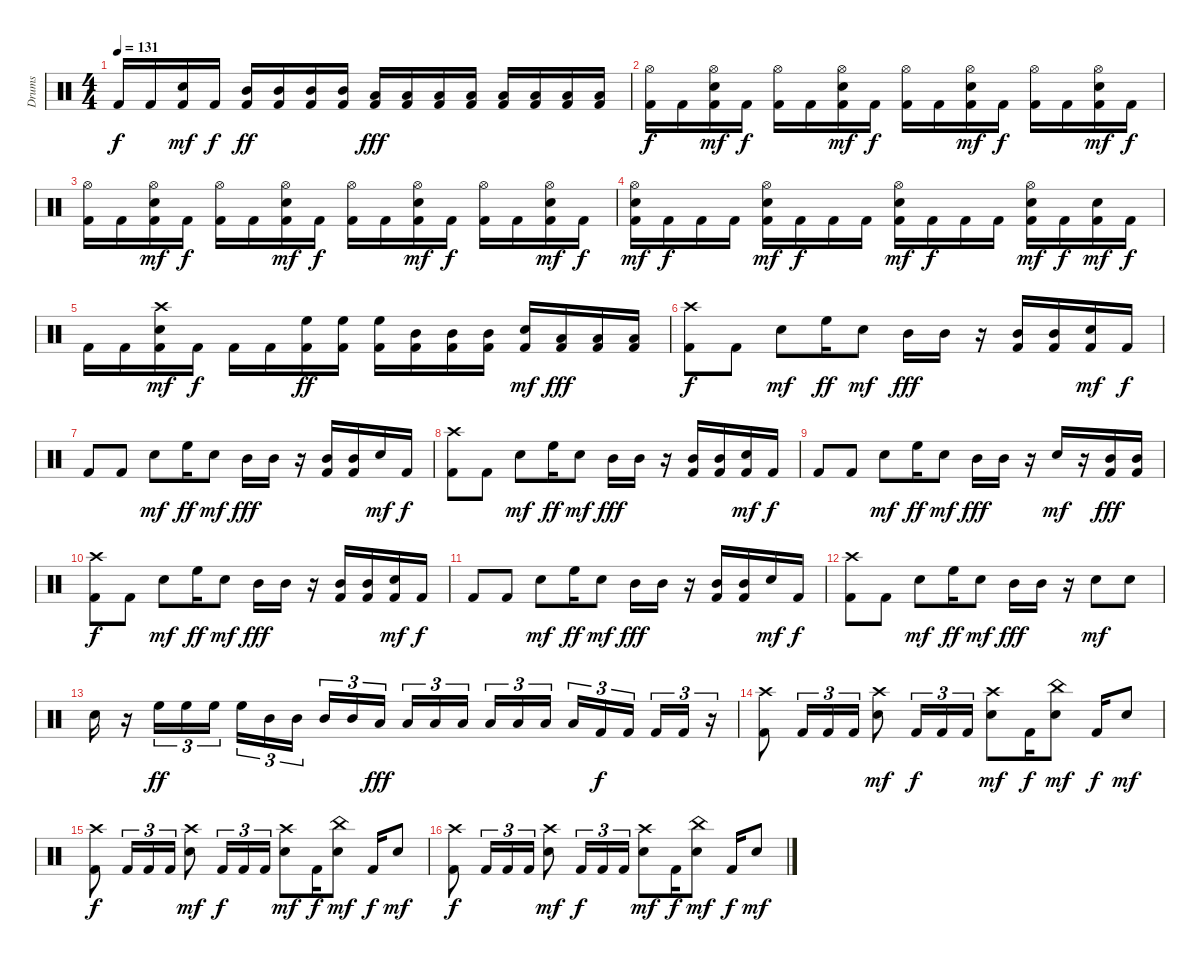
\track ("Drums" "Drums") {instrument percussion}
\staff {score}
\articulation defaults
\ts (4 4)
\tempo 131
\clef neutral
\ks c "Kick (hit) 2".16{dy f} "Kick (hit) 2".16
("Snare (hit) 2" "Kick (hit) 2").16{dy mf} "Kick (hit) 2".16{dy f} ("Mid Tom (hit)" "Kick (hit) 2").16{dy ff} ("Mid Tom (hit)" "Kick (hit) 2").16 ("Mid Tom (hit)" "Kick (hit) 2").16 ("Mid Tom (hit)" "Kick (hit) 2").16 ("Low Tom (hit)" "Kick (hit) 2").16{dy fff} ("Low Tom (hit)" "Kick (hit) 2").16 ("Low Tom (hit)" "Kick (hit) 2").16 ("Low Tom (hit)" "Kick (hit) 2").16 ("Low Floor Tom (hit)" "Kick (hit) 2").16 ("Low Floor Tom (hit)" "Kick (hit) 2").16 ("Low Floor Tom (hit)" "Kick (hit) 2").16 ("Low Floor Tom (hit)" "Kick (hit) 2").16 |
("Hi-Hat (open)" "Kick (hit) 2").16{dy f} "Kick (hit) 2".16 ("Hi-Hat (open)" "Snare (hit) 2" "Kick (hit) 2").16{dy mf} "Kick (hit) 2".16{dy f} ("Hi-Hat (open)" "Kick (hit) 2").16 "Kick (hit) 2".16 ("Hi-Hat (open)" "Snare (hit) 2" "Kick (hit) 2").16{dy mf} "Kick (hit) 2".16{dy f} ("Hi-Hat (open)" "Kick (hit) 2").16 "Kick (hit) 2".16 ("Hi-Hat (open)" "Snare (hit) 2" "Kick (hit) 2").16{dy mf} "Kick (hit) 2".16{dy f} ("Hi-Hat (open)" "Kick (hit) 2").16 "Kick (hit) 2".16 ("Hi-Hat (open)" "Snare (hit) 2" "Kick (hit) 2").16{dy mf} "Kick (hit) 2".16{dy f} |
("Hi-Hat (open)" "Kick (hit) 2").16 "Kick (hit) 2".16 ("Hi-Hat (open)" "Snare (hit) 2" "Kick (hit) 2").16{dy mf} "Kick (hit) 2".16{dy f} ("Hi-Hat (open)" "Kick (hit) 2").16 "Kick (hit) 2".16 ("Hi-Hat (open)" "Snare (hit) 2" "Kick (hit) 2").16{dy mf} "Kick (hit) 2".16{dy f} ("Hi-Hat (open)" "Kick (hit) 2").16 "Kick (hit) 2".16 ("Hi-Hat (open)" "Snare (hit) 2" "Kick (hit) 2").16{dy mf} "Kick (hit) 2".16{dy f} ("Hi-Hat (open)" "Kick (hit) 2").16 "Kick (hit) 2".16 ("Hi-Hat (open)" "Snare (hit) 2" "Kick (hit) 2").16{dy mf} "Kick (hit) 2".16{dy f} |
("Hi-Hat (open)" "Snare (hit) 2" "Kick (hit) 2").16{dy mf} "Kick (hit) 2".16{dy f} "Kick (hit) 2".16 "Kick (hit) 2".16 ("Hi-Hat (open)" "Snare (hit) 2" "Kick (hit) 2").16{dy mf} "Kick (hit) 2".16{dy f} "Kick (hit) 2".16 "Kick (hit) 2".16 ("Hi-Hat (open)" "Snare (hit) 2" "Kick (hit) 2").16{dy mf} "Kick (hit) 2".16{dy f} "Kick (hit) 2".16 "Kick (hit) 2".16 ("Hi-Hat (open)" "Snare (hit) 2" "Kick (hit) 2").16{dy mf} "Kick (hit) 2".16{dy f} ("Snare (hit) 2" "Kick (hit) 2").16{dy mf} "Kick (hit) 2".16{dy f} |
"Kick (hit) 2".16 "Kick (hit) 2".16 ("Crash high (hit)" "Snare (hit) 2" "Kick (hit) 2").16{dy mf} "Kick (hit) 2".16{dy f} "Kick (hit) 2".16 "Kick (hit) 2".16 ("High Floor Tom (hit)" "Kick (hit) 2").16{dy ff} ("High Floor Tom (hit)" "Kick (hit) 2").16 ("High Floor Tom (hit)" "Kick (hit) 2").16 ("Mid Tom (hit)" "Kick (hit) 2").16 ("Mid Tom (hit)" "Kick (hit) 2").16 ("Mid Tom (hit)" "Kick (hit) 2").16 ("Snare (hit) 2" "Kick (hit) 2").16{dy mf} ("Low Tom (hit)" "Kick (hit) 2").16{dy fff} ("Low Tom (hit)" "Kick (hit) 2").16 ("Low Tom (hit)" "Kick (hit) 2").16 |
\section ("" "")
("Crash high (hit)" "Kick (hit) 2").8{dy f} "Kick (hit) 2".8 "Snare (hit) 2".8{dy mf} "High Floor Tom (hit)".16{dy ff} "Snare (hit) 2".8{dy mf} "Mid Tom (hit)".16{dy fff} "Mid Tom (hit)".16 r.16 ("Mid Tom (hit)" "Kick (hit) 2").16 ("Mid Tom (hit)" "Kick (hit) 2").16 ("Snare (hit) 2" "Kick (hit) 2").16{dy mf} "Kick (hit) 2".16{dy f} |
"Kick (hit) 2".8 "Kick (hit) 2".8 "Snare (hit) 2".8{dy mf} "High Floor Tom (hit)".16{dy ff} "Snare (hit) 2".8{dy mf} "Mid Tom (hit)".16{dy fff} "Mid Tom (hit)".16 r.16 ("Mid Tom (hit)" "Kick (hit) 2").16 ("Mid Tom (hit)" "Kick (hit) 2").16 "Snare (hit) 2".16{dy mf} "Kick (hit) 2".16{dy f} |
("Crash high (hit)" "Kick (hit) 2").8 "Kick (hit) 2".8 "Snare (hit) 2".8{dy mf} "High Floor Tom (hit)".16{dy ff} "Snare (hit) 2".8{dy mf} "Mid Tom (hit)".16{dy fff} "Mid Tom (hit)".16 r.16 ("Mid Tom (hit)" "Kick (hit) 2").16 ("Mid Tom (hit)" "Kick (hit) 2").16 ("Snare (hit) 2" "Kick (hit) 2").16{dy mf} "Kick (hit) 2".16{dy f} |
"Kick (hit) 2".8 "Kick (hit) 2".8 "Snare (hit) 2".8{dy mf} "High Floor Tom (hit)".16{dy ff} "Snare (hit) 2".8{dy mf} "Mid Tom (hit)".16{dy fff} "Mid Tom (hit)".16 r.16 "Snare (hit) 2".16{dy mf} r.16 ("Mid Tom (hit)" "Kick (hit) 2").16{dy fff} ("Mid Tom (hit)" "Kick (hit) 2").16 |
("Crash high (hit)" "Kick (hit) 2").8{dy f} "Kick (hit) 2".8 "Snare (hit) 2".8{dy mf} "High Floor Tom (hit)".16{dy ff} "Snare (hit) 2".8{dy mf} "Mid Tom (hit)".16{dy fff} "Mid Tom (hit)".16 r.16 ("Mid Tom (hit)" "Kick (hit) 2").16 ("Mid Tom (hit)" "Kick (hit) 2").16 ("Snare (hit) 2" "Kick (hit) 2").16{dy mf} "Kick (hit) 2".16{dy f} |
"Kick (hit) 2".8 "Kick (hit) 2".8 "Snare (hit) 2".8{dy mf} "High Floor Tom (hit)".16{dy ff} "Snare (hit) 2".8{dy mf} "Mid Tom (hit)".16{dy fff} "Mid Tom (hit)".16 r.16 ("Mid Tom (hit)" "Kick (hit) 2").16 ("Mid Tom (hit)" "Kick (hit) 2").16 "Snare (hit) 2".16{dy mf} "Kick (hit) 2".16{dy f} |
("Crash high (hit)" "Kick (hit) 2").8 "Kick (hit) 2".8 "Snare (hit) 2".8{dy mf} "High Floor Tom (hit)".16{dy ff} "Snare (hit) 2".8{dy mf} "Mid Tom (hit)".16{dy fff} "Mid Tom (hit)".16 r.16 "Snare (hit) 2".8{dy mf} "Snare (hit) 2".8 |
"Snare (hit) 2".16 r.16 "High Floor Tom (hit)".16{tu (3 2) dy ff} "High Floor Tom (hit)".16{tu (3 2)} "High Floor Tom (hit)".16{tu (3 2)} "High Floor Tom (hit)".16{tu (3 2)} "Mid Tom (hit)".16{tu (3 2)} "Mid Tom (hit)".16{tu (3 2)} "Mid Tom (hit)".16{tu (3 2)} "Mid Tom (hit)".16{tu (3 2)} "Low Tom (hit)".16{tu (3 2) dy fff} "Low Tom (hit)".16{tu (3 2)} "Low Tom (hit)".16{tu (3 2)} "Low Tom (hit)".16{tu (3 2)} "Low Floor Tom (hit)".16{tu (3 2)} "Low Floor Tom (hit)".16{tu (3 2)} "Low Floor Tom (hit)".16{tu (3 2)} "Low Floor Tom (hit)".16{tu (3 2)} "Kick (hit) 2".16{tu (3 2) dy f} "Kick (hit) 2".16{tu (3 2)} "Kick (hit) 2".16{tu (3 2)} "Kick (hit) 2".16{tu (3 2)} r.16{tu (3 2)} |
\section ("" "")
("Crash high (hit)" "Kick (hit) 2").8 "Kick (hit) 2".16{tu (3 2)} "Kick (hit) 2".16{tu (3 2)} "Kick (hit) 2".16{tu (3 2)} ("Crash high (hit)" "Snare (hit) 2").8{dy mf} "Kick (hit) 2".16{tu (3 2) dy f} "Kick (hit) 2".16{tu (3 2)} "Kick (hit) 2".16{tu (3 2)} ("Crash high (hit)" "Snare (hit) 2").8{dy mf} "Kick (hit) 2".16{dy f} ("China (hit)" "Snare (hit) 2").8{dy mf} "Kick (hit) 2".16{dy f} "Snare (hit) 2".8{dy mf} |
("Crash high (hit)" "Kick (hit) 2").8{dy f} "Kick (hit) 2".16{tu (3 2)} "Kick (hit) 2".16{tu (3 2)} "Kick (hit) 2".16{tu (3 2)} ("Crash high (hit)" "Snare (hit) 2").8{dy mf} "Kick (hit) 2".16{tu (3 2) dy f} "Kick (hit) 2".16{tu (3 2)} "Kick (hit) 2".16{tu (3 2)} ("Crash high (hit)" "Snare (hit) 2").8{dy mf} "Kick (hit) 2".16{dy f} ("China (hit)" "Snare (hit) 2").8{dy mf} "Kick (hit) 2".16{dy f} "Snare (hit) 2".8{dy mf} |
("Crash high (hit)" "Kick (hit) 2").8{dy f} "Kick (hit) 2".16{tu (3 2)} "Kick (hit) 2".16{tu (3 2)} "Kick (hit) 2".16{tu (3 2)} ("Crash high (hit)" "Snare (hit) 2").8{dy mf} "Kick (hit) 2".16{tu (3 2) dy f} "Kick (hit) 2".16{tu (3 2)} "Kick (hit) 2".16{tu (3 2)} ("Crash high (hit)" "Snare (hit) 2").8{dy mf} "Kick (hit) 2".16{dy f} ("China (hit)" "Snare (hit) 2").8{dy mf} "Kick (hit) 2".16{dy f} "Snare (hit) 2".8{dy mf}
